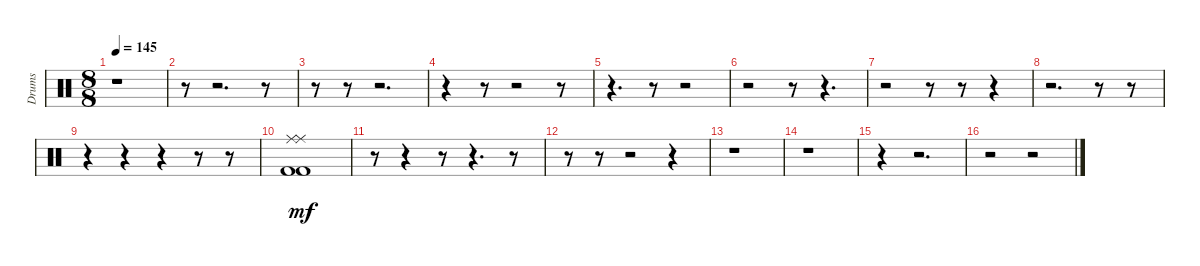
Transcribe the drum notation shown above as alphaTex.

\track ("Drums" "Drums") {instrument percussion}
\staff {score}
\articulation defaults
\ts (8 8)
\tempo 145
\clef neutral
\ks c
r.1{dy f} |
r.8 r.2{d} r.8 |
r.8 r.8 r.2{d} |
r.4 r.8 r.2 r.8 |
r.4{d} r.8 r.2 |
r.2 r.8 r.4{d} |
r.2 r.8 r.8 r.4 |
r.2{d} r.8 r.8 |
r.4 r.4 r.4 r.8 r.8 |
("Ride (middle)" "Ride (middle)" "Kick (hit) 2" "Kick (hit) 2").1{dy mf} |
r.8 r.4 r.8 r.4{d} r.8 |
r.8 r.8 r.2 r.4 |
r.1 |
r.1 |
r.4 r.2{d} |
r.2 r.2
